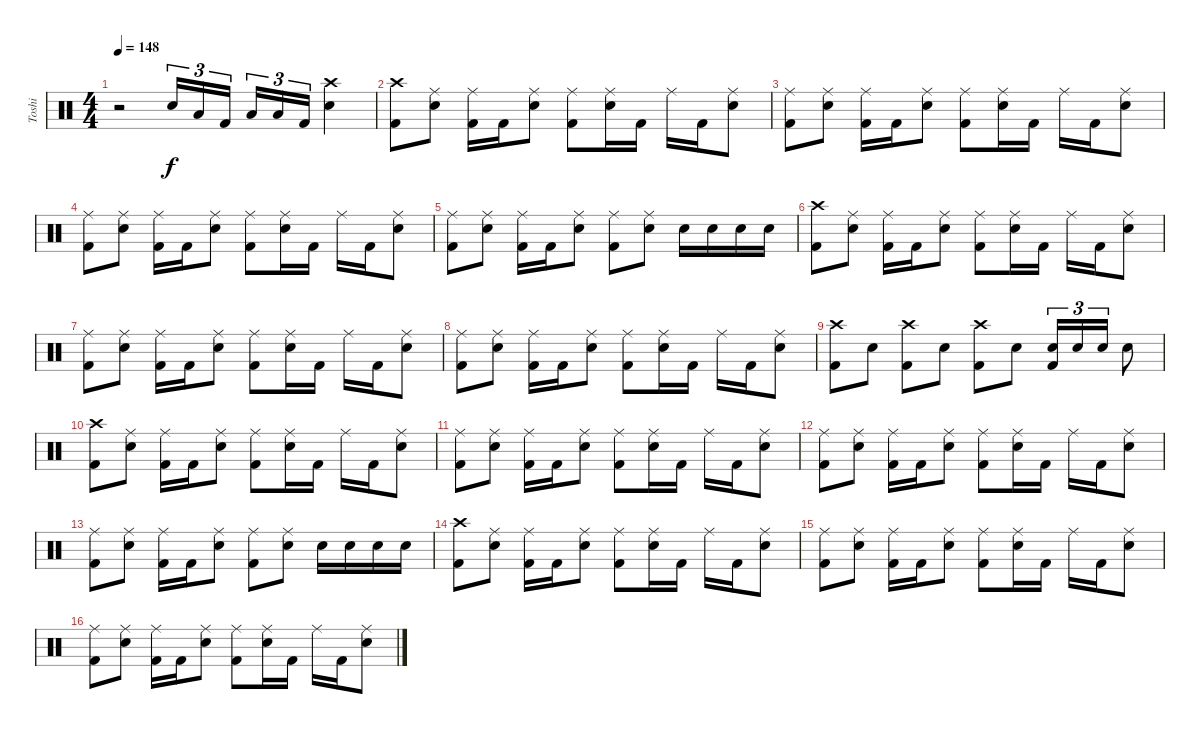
\track ("Toshi" "Toshi") {instrument percussion}
\staff {score}
\articulation defaults
\ts (4 4)
\tempo 148
\clef neutral
\ks c
r.2{dy f} "Snare (hit) 2".16{tu (3 2)} "Low Floor Tom (hit)".16{tu (3 2)} "Kick (hit) 2".16{tu (3 2)} "Low Tom (hit)".16{tu (3 2)} "Low Floor Tom (hit)".16{tu (3 2)} "Kick (hit) 2".16{tu (3 2)} ("Crash high (hit)" "Snare (hit) 2").4 |
("Crash high (hit)" "Kick (hit) 2").8 ("Ride (middle)" "Snare (hit) 2").8 ("Ride (middle)" "Kick (hit) 2").16 "Kick (hit) 2".16 ("Ride (middle)" "Snare (hit) 2").8 ("Ride (middle)" "Kick (hit) 2").8 ("Ride (middle)" "Snare (hit) 2").16 "Kick (hit) 2".16 "Ride (middle)".16 "Kick (hit) 2".16 ("Ride (middle)" "Snare (hit) 2").8 |
("Ride (middle)" "Kick (hit) 2").8 ("Ride (middle)" "Snare (hit) 2").8 ("Ride (middle)" "Kick (hit) 2").16 "Kick (hit) 2".16 ("Ride (middle)" "Snare (hit) 2").8 ("Ride (middle)" "Kick (hit) 2").8 ("Ride (middle)" "Snare (hit) 2").16 "Kick (hit) 2".16 "Ride (middle)".16 "Kick (hit) 2".16 ("Ride (middle)" "Snare (hit) 2").8 |
("Ride (middle)" "Kick (hit) 2").8 ("Ride (middle)" "Snare (hit) 2").8 ("Ride (middle)" "Kick (hit) 2").16 "Kick (hit) 2".16 ("Ride (middle)" "Snare (hit) 2").8 ("Ride (middle)" "Kick (hit) 2").8 ("Ride (middle)" "Snare (hit) 2").16 "Kick (hit) 2".16 "Ride (middle)".16 "Kick (hit) 2".16 ("Ride (middle)" "Snare (hit) 2").8 |
("Ride (middle)" "Kick (hit) 2").8 ("Ride (middle)" "Snare (hit) 2").8 ("Ride (middle)" "Kick (hit) 2").16 "Kick (hit) 2".16 ("Ride (middle)" "Snare (hit) 2").8 ("Ride (middle)" "Kick (hit) 2").8 ("Ride (middle)" "Snare (hit) 2").8 "Snare (hit) 2".16 "Snare (hit) 2".16 "Snare (hit) 2".16 "Snare (hit) 2".16 |
("Crash high (hit)" "Kick (hit) 2").8 ("Ride (middle)" "Snare (hit) 2").8 ("Ride (middle)" "Kick (hit) 2").16 "Kick (hit) 2".16 ("Ride (middle)" "Snare (hit) 2").8 ("Ride (middle)" "Kick (hit) 2").8 ("Ride (middle)" "Snare (hit) 2").16 "Kick (hit) 2".16 "Ride (middle)".16 "Kick (hit) 2".16 ("Ride (middle)" "Snare (hit) 2").8 |
("Ride (middle)" "Kick (hit) 2").8 ("Ride (middle)" "Snare (hit) 2").8 ("Ride (middle)" "Kick (hit) 2").16 "Kick (hit) 2".16 ("Ride (middle)" "Snare (hit) 2").8 ("Ride (middle)" "Kick (hit) 2").8 ("Ride (middle)" "Snare (hit) 2").16 "Kick (hit) 2".16 "Ride (middle)".16 "Kick (hit) 2".16 ("Ride (middle)" "Snare (hit) 2").8 |
("Ride (middle)" "Kick (hit) 2").8 ("Ride (middle)" "Snare (hit) 2").8 ("Ride (middle)" "Kick (hit) 2").16 "Kick (hit) 2".16 ("Ride (middle)" "Snare (hit) 2").8 ("Ride (middle)" "Kick (hit) 2").8 ("Ride (middle)" "Snare (hit) 2").16 "Kick (hit) 2".16 "Ride (middle)".16 "Kick (hit) 2".16 ("Ride (middle)" "Snare (hit) 2").8 |
("Crash high (hit)" "Kick (hit) 2").8 "Snare (hit) 2".8 ("Crash high (hit)" "Kick (hit) 2").8 "Snare (hit) 2".8 ("Crash high (hit)" "Kick (hit) 2").8 "Snare (hit) 2".8 ("Snare (hit) 2" "Kick (hit) 2").16{tu (3 2)} "Snare (hit) 2".16{tu (3 2)} "Snare (hit) 2".16{tu (3 2)} "Snare (hit) 2".8 |
("Crash high (hit)" "Kick (hit) 2").8 ("Ride (middle)" "Snare (hit) 2").8 ("Ride (middle)" "Kick (hit) 2").16 "Kick (hit) 2".16 ("Ride (middle)" "Snare (hit) 2").8 ("Ride (middle)" "Kick (hit) 2").8 ("Ride (middle)" "Snare (hit) 2").16 "Kick (hit) 2".16 "Ride (middle)".16 "Kick (hit) 2".16 ("Ride (middle)" "Snare (hit) 2").8 |
("Ride (middle)" "Kick (hit) 2").8 ("Ride (middle)" "Snare (hit) 2").8 ("Ride (middle)" "Kick (hit) 2").16 "Kick (hit) 2".16 ("Ride (middle)" "Snare (hit) 2").8 ("Ride (middle)" "Kick (hit) 2").8 ("Ride (middle)" "Snare (hit) 2").16 "Kick (hit) 2".16 "Ride (middle)".16 "Kick (hit) 2".16 ("Ride (middle)" "Snare (hit) 2").8 |
("Ride (middle)" "Kick (hit) 2").8 ("Ride (middle)" "Snare (hit) 2").8 ("Ride (middle)" "Kick (hit) 2").16 "Kick (hit) 2".16 ("Ride (middle)" "Snare (hit) 2").8 ("Ride (middle)" "Kick (hit) 2").8 ("Ride (middle)" "Snare (hit) 2").16 "Kick (hit) 2".16 "Ride (middle)".16 "Kick (hit) 2".16 ("Ride (middle)" "Snare (hit) 2").8 |
("Ride (middle)" "Kick (hit) 2").8 ("Ride (middle)" "Snare (hit) 2").8 ("Ride (middle)" "Kick (hit) 2").16 "Kick (hit) 2".16 ("Ride (middle)" "Snare (hit) 2").8 ("Ride (middle)" "Kick (hit) 2").8 ("Ride (middle)" "Snare (hit) 2").8 "Snare (hit) 2".16 "Snare (hit) 2".16 "Snare (hit) 2".16 "Snare (hit) 2".16 |
("Crash high (hit)" "Kick (hit) 2").8 ("Ride (middle)" "Snare (hit) 2").8 ("Ride (middle)" "Kick (hit) 2").16 "Kick (hit) 2".16 ("Ride (middle)" "Snare (hit) 2").8 ("Ride (middle)" "Kick (hit) 2").8 ("Ride (middle)" "Snare (hit) 2").16 "Kick (hit) 2".16 "Ride (middle)".16 "Kick (hit) 2".16 ("Ride (middle)" "Snare (hit) 2").8 |
("Ride (middle)" "Kick (hit) 2").8 ("Ride (middle)" "Snare (hit) 2").8 ("Ride (middle)" "Kick (hit) 2").16 "Kick (hit) 2".16 ("Ride (middle)" "Snare (hit) 2").8 ("Ride (middle)" "Kick (hit) 2").8 ("Ride (middle)" "Snare (hit) 2").16 "Kick (hit) 2".16 "Ride (middle)".16 "Kick (hit) 2".16 ("Ride (middle)" "Snare (hit) 2").8 |
("Ride (middle)" "Kick (hit) 2").8 ("Ride (middle)" "Snare (hit) 2").8 ("Ride (middle)" "Kick (hit) 2").16 "Kick (hit) 2".16 ("Ride (middle)" "Snare (hit) 2").8 ("Ride (middle)" "Kick (hit) 2").8 ("Ride (middle)" "Snare (hit) 2").16 "Kick (hit) 2".16 "Ride (middle)".16 "Kick (hit) 2".16 ("Ride (middle)" "Snare (hit) 2").8
